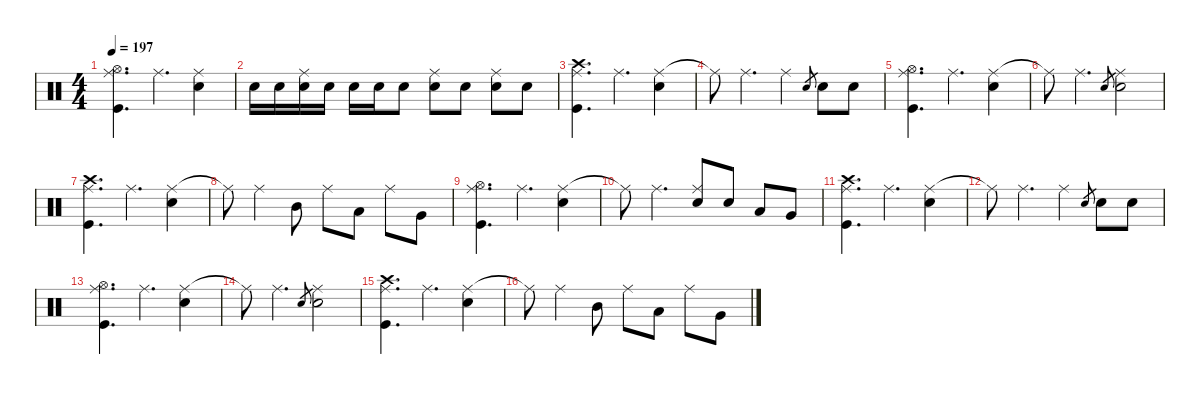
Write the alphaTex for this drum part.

\defaultSystemsLayout 4
\hideDynamics
\bracketExtendMode nobrackets
\singleTrackTrackNamePolicy hidden
\multiTrackTrackNamePolicy hidden
\firstSystemTrackNameMode fullname
\firstSystemTrackNameOrientation horizontal
\otherSystemsTrackNameOrientation horizontal
\track ("Drums" "drm.") {defaultSystemsLayout 4 instrument percussion}
\staff {score}
\articulation defaults
\ts (4 4)
\tempo 197
\clef neutral
\ks c
("Hi-Hat (open)" "Ride (middle)" "Kick (hit)").4{d dy f beam Down} "Ride (middle)".4{d beam Down} ("Ride (middle)" "Snare (hit) 2").4{beam Down} |
"Snare (hit) 2".16{dy p beam Down} "Snare (hit) 2".16{beam Down} ("Ride (middle)" "Snare (hit) 2").16{dy f beam Down} "Snare (hit) 2".16{dy mp beam Down} "Snare (hit) 2".16{beam Down} "Snare (hit) 2".16{beam Down} "Snare (hit) 2".8{dy mf beam Down} ("Ride (middle)" "Snare (hit) 2").8{dy f beam Down} "Snare (hit) 2".8{beam Down} ("Ride (middle)" "Snare (hit) 2").8{beam Down} "Snare (hit) 2".8{beam Down} |
("Crash high (hit)" "Ride (middle)" "Kick (hit)").4{d beam Down} "Ride (middle)".4{d beam Down} ("Ride (middle)" "Snare (hit) 2").4{beam Down} |
"Ride (middle)"{t}.8{beam Down} "Ride (middle)".4{d beam Down} "Ride (middle)".4{beam Down} "Electric Snare (hit)".8{gr dy p beam Up} "Snare (hit) 2".8{dy mp beam Down} "Snare (hit) 2".8{dy mf beam Down} |
("Hi-Hat (open)" "Ride (middle)" "Kick (hit)").4{d dy f beam Down} "Ride (middle)".4{d beam Down} ("Ride (middle)" "Snare (hit) 2").4{beam Down} |
"Ride (middle)"{t}.8{beam Down} "Ride (middle)".4{d beam Down} "Electric Snare (hit)".8{gr dy pp beam Up} ("Ride (middle)" "Snare (hit) 2").2{dy f beam Down} |
("Crash high (hit)" "Ride (middle)" "Kick (hit)").4{d beam Down} "Ride (middle)".4{d beam Down} ("Ride (middle)" "Snare (hit) 2").4{beam Down} |
"Ride (middle)"{t}.8{beam Down} "Ride (middle)".4{beam Down} "Mid Tom (hit)".8{dy mp beam Down} "Ride (middle)".8{dy f beam Down} "Low Tom (hit)".8{dy mp beam Down} "Ride (middle)".8{dy f beam Down} "Very Low Tom (hit)".8{dy mp beam Down} |
("Hi-Hat (open)" "Ride (middle)" "Kick (hit)").4{d dy f beam Down} "Ride (middle)".4{d beam Down} ("Ride (middle)" "Snare (hit) 2").4{beam Down} |
"Ride (middle)"{t}.8{beam Down} "Ride (middle)".4{d beam Down} ("Ride (middle)" "Snare (hit) 2").8{beam Up} "Snare (hit) 2".8{dy mf beam Up} "Low Tom (hit)".8{dy mp beam Up} "Very Low Tom (hit)".8{dy mf beam Up} |
("Crash high (hit)" "Ride (middle)" "Kick (hit)").4{d dy f beam Down} "Ride (middle)".4{d beam Down} ("Ride (middle)" "Snare (hit) 2").4{beam Down} |
"Ride (middle)"{t}.8{beam Down} "Ride (middle)".4{d beam Down} "Ride (middle)".4{beam Down} "Electric Snare (hit)".8{gr dy p beam Up} "Snare (hit) 2".8{dy mp beam Down} "Snare (hit) 2".8{dy mf beam Down} |
("Hi-Hat (open)" "Ride (middle)" "Kick (hit)").4{d dy f beam Down} "Ride (middle)".4{d beam Down} ("Ride (middle)" "Snare (hit) 2").4{beam Down} |
"Ride (middle)"{t}.8{beam Down} "Ride (middle)".4{d beam Down} "Electric Snare (hit)".8{gr dy pp beam Up} ("Ride (middle)" "Snare (hit) 2").2{dy f beam Down} |
("Crash high (hit)" "Ride (middle)" "Kick (hit)").4{d beam Down} "Ride (middle)".4{d beam Down} ("Ride (middle)" "Snare (hit) 2").4{beam Down} |
"Ride (middle)"{t}.8{beam Down} "Ride (middle)".4{beam Down} "Mid Tom (hit)".8{dy mp beam Down} "Ride (middle)".8{dy f beam Down} "Low Tom (hit)".8{dy mp beam Down} "Ride (middle)".8{dy f beam Down} "Very Low Tom (hit)".8{dy mp beam Down}
